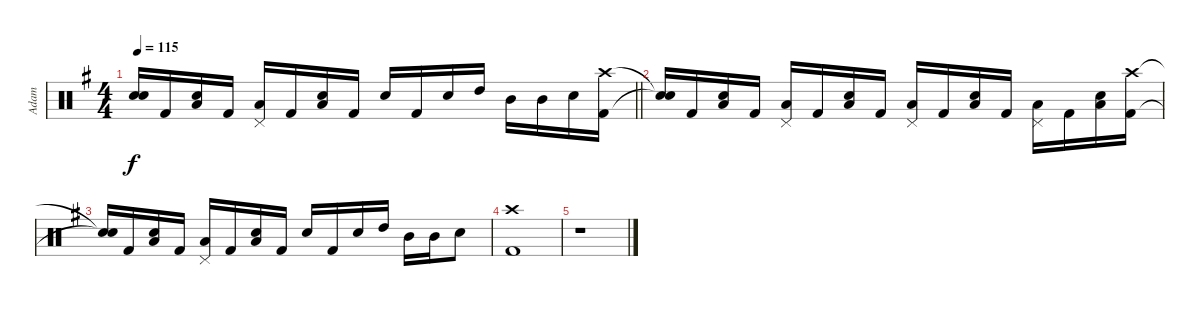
\track ("Adam" "Adam") {instrument percussion}
\staff {score}
\articulation defaults
\ts (4 4)
\tempo 115
\clef neutral
\barLineRight lightlight
\ks g
("Snare (hit)"{t} "Snare (hit)"{t}).16{dy f} "Kick (hit) 2".16 ("Snare (hit) 2" "Low Tom (hit)").16 "Kick (hit) 2".16 ("Low Tom (hit)" "Pedal Hi-Hat (hit)").16 "Kick (hit) 2".16 ("Snare (hit) 2" "Low Tom (hit)").16 "Kick (hit) 2".16 "Snare (hit) 2".16 "Kick (hit) 2".16 "Snare (hit) 2".16 "High Tom (hit)".16 "Mid Tom (hit)".16 "Mid Tom (hit)".16 "Snare (hit) 2".16 ("Crash high (hit)" "Kick (hit) 2").16 |
("Snare (hit)"{t} "Snare (hit)"{t}).16 "Kick (hit) 2".16 ("Snare (hit) 2" "Low Tom (hit)").16 "Kick (hit) 2".16 ("Low Tom (hit)" "Pedal Hi-Hat (hit)").16 "Kick (hit) 2".16 ("Snare (hit) 2" "Low Tom (hit)").16 "Kick (hit) 2".16 ("Low Tom (hit)" "Pedal Hi-Hat (hit)").16 "Kick (hit) 2".16 ("Snare (hit) 2" "Low Tom (hit)").16 "Kick (hit) 2".16 ("Low Tom (hit)" "Pedal Hi-Hat (hit)").16 "Kick (hit) 2".16 ("Snare (hit) 2" "Low Tom (hit)").16 ("Crash high (hit)" "Kick (hit) 2").16 |
("Snare (hit)"{t} "Snare (hit)"{t}).16 "Kick (hit) 2".16 ("Snare (hit) 2" "Low Tom (hit)").16 "Kick (hit) 2".16 ("Low Tom (hit)" "Pedal Hi-Hat (hit)").16 "Kick (hit) 2".16 ("Snare (hit) 2" "Low Tom (hit)").16 "Kick (hit) 2".16 "Snare (hit) 2".16 "Kick (hit) 2".16 "Snare (hit) 2".16 "High Tom (hit)".16 "Mid Tom (hit)".16 "Mid Tom (hit)".16 "Snare (hit) 2".8 |
("Crash high (hit)" "Kick (hit) 2").1 |
r.1
